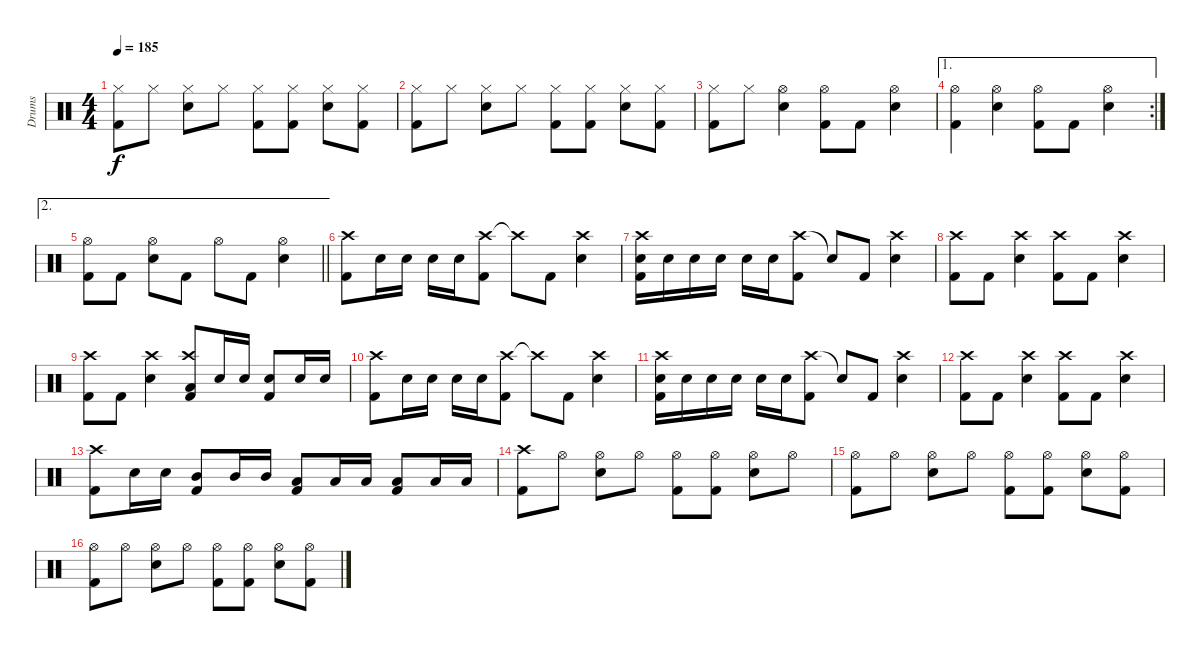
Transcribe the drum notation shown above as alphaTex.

\track ("Drums" "Drums") {instrument percussion}
\staff {score}
\articulation defaults
\ts (4 4)
\tempo 185
\clef neutral
\ks c
("Hi-Hat (closed)" "Kick (hit) 2").8{dy f} "Hi-Hat (closed)".8 ("Hi-Hat (closed)" "Electric Snare (hit)").8 "Hi-Hat (closed)".8 ("Hi-Hat (closed)" "Kick (hit) 2").8 ("Hi-Hat (closed)" "Kick (hit) 2").8 ("Hi-Hat (closed)" "Electric Snare (hit)").8 ("Hi-Hat (closed)" "Kick (hit) 2").8 |
("Hi-Hat (closed)" "Kick (hit) 2").8 "Hi-Hat (closed)".8 ("Hi-Hat (closed)" "Electric Snare (hit)").8 "Hi-Hat (closed)".8 ("Hi-Hat (closed)" "Kick (hit) 2").8 ("Hi-Hat (closed)" "Kick (hit) 2").8 ("Hi-Hat (closed)" "Electric Snare (hit)").8 ("Hi-Hat (closed)" "Kick (hit) 2").8 |
("Hi-Hat (closed)" "Kick (hit) 2").8 "Hi-Hat (closed)".8 ("Hi-Hat (open)" "Electric Snare (hit)").4 ("Hi-Hat (open)" "Kick (hit) 2").8 "Kick (hit) 2".8 ("Hi-Hat (open)" "Electric Snare (hit)").4 |
\ae 1
\rc 2
("Hi-Hat (open)" "Kick (hit) 2").4 ("Hi-Hat (open)" "Electric Snare (hit)").4 ("Hi-Hat (open)" "Kick (hit) 2").8 "Kick (hit) 2".8 ("Hi-Hat (open)" "Electric Snare (hit)").4 |
\ae 2
\barLineRight lightlight
("Hi-Hat (open)" "Kick (hit) 2").8 "Kick (hit) 2".8 ("Hi-Hat (open)" "Electric Snare (hit)").8 "Kick (hit) 2".8 "Hi-Hat (open)".8 "Kick (hit) 2".8 ("Hi-Hat (open)" "Electric Snare (hit)").4 |
("Crash high (hit)" "Kick (hit) 2").8 "Electric Snare (hit)".16 "Electric Snare (hit)".16 "Electric Snare (hit)".16 "Electric Snare (hit)".16 ("Crash high (hit)" "Kick (hit) 2").8 "Crash high (hit)"{t}.8 "Kick (hit) 2".8 ("Crash high (hit)" "Electric Snare (hit)").4 |
("Crash high (hit)" "Electric Snare (hit)" "Kick (hit) 2").16 "Electric Snare (hit)".16 "Electric Snare (hit)".16 "Electric Snare (hit)".16 "Electric Snare (hit)".16 "Electric Snare (hit)".16 ("Crash high (hit)" "Kick (hit) 2").8 "Snare (hit)"{t}.8 "Kick (hit) 2".8 ("Crash high (hit)" "Electric Snare (hit)").4 |
("Crash high (hit)" "Kick (hit) 2").8 "Kick (hit) 2".8 ("Crash high (hit)" "Electric Snare (hit)").4 ("Crash high (hit)" "Kick (hit) 2").8 "Kick (hit) 2".8 ("Crash high (hit)" "Electric Snare (hit)").4 |
("Crash high (hit)" "Kick (hit) 2").8 "Kick (hit) 2".8 ("Crash high (hit)" "Electric Snare (hit)").4 ("Crash high (hit)" "Low Floor Tom (hit)" "Kick (hit) 2").8 "Electric Snare (hit)".16 "Electric Snare (hit)".16 ("Electric Snare (hit)" "Kick (hit) 2").8 "Electric Snare (hit)".16 "Electric Snare (hit)".16 |
("Crash high (hit)" "Kick (hit) 2").8 "Electric Snare (hit)".16 "Electric Snare (hit)".16 "Electric Snare (hit)".16 "Electric Snare (hit)".16 ("Crash high (hit)" "Kick (hit) 2").8 "Crash high (hit)"{t}.8 "Kick (hit) 2".8 ("Crash high (hit)" "Electric Snare (hit)").4 |
("Crash high (hit)" "Electric Snare (hit)" "Kick (hit) 2").16 "Electric Snare (hit)".16 "Electric Snare (hit)".16 "Electric Snare (hit)".16 "Electric Snare (hit)".16 "Electric Snare (hit)".16 ("Crash high (hit)" "Kick (hit) 2").8 "Snare (hit)"{t}.8 "Kick (hit) 2".8 ("Crash high (hit)" "Electric Snare (hit)").4 |
("Crash high (hit)" "Kick (hit) 2").8 "Kick (hit) 2".8 ("Crash high (hit)" "Electric Snare (hit)").4 ("Crash high (hit)" "Kick (hit) 2").8 "Kick (hit) 2".8 ("Crash high (hit)" "Electric Snare (hit)").4 |
("Crash high (hit)" "Kick (hit) 2").8 "Electric Snare (hit)".16 "Electric Snare (hit)".16 ("Mid Tom (hit)" "Kick (hit) 2").8 "Mid Tom (hit)".16 "Mid Tom (hit)".16 ("Low Tom (hit)" "Kick (hit) 2").8 "Low Tom (hit)".16 "Low Tom (hit)".16 ("Low Floor Tom (hit)" "Kick (hit) 2").8 "Low Floor Tom (hit)".16 "Low Floor Tom (hit)".16 |
("Crash high (hit)" "Kick (hit) 2").8 "Hi-Hat (open)".8 ("Hi-Hat (open)" "Electric Snare (hit)").8 "Hi-Hat (open)".8 ("Hi-Hat (open)" "Kick (hit) 2").8 ("Hi-Hat (open)" "Kick (hit) 2").8 ("Hi-Hat (open)" "Electric Snare (hit)").8 "Hi-Hat (open)".8 |
("Hi-Hat (open)" "Kick (hit) 2").8 "Hi-Hat (open)".8 ("Hi-Hat (open)" "Electric Snare (hit)").8 "Hi-Hat (open)".8 ("Hi-Hat (open)" "Kick (hit) 2").8 ("Hi-Hat (open)" "Kick (hit) 2").8 ("Hi-Hat (open)" "Electric Snare (hit)").8 ("Hi-Hat (open)" "Kick (hit) 2").8 |
("Hi-Hat (open)" "Kick (hit) 2").8 "Hi-Hat (open)".8 ("Hi-Hat (open)" "Electric Snare (hit)").8 "Hi-Hat (open)".8 ("Hi-Hat (open)" "Kick (hit) 2").8 ("Hi-Hat (open)" "Kick (hit) 2").8 ("Hi-Hat (open)" "Electric Snare (hit)").8 ("Hi-Hat (open)" "Kick (hit) 2").8
